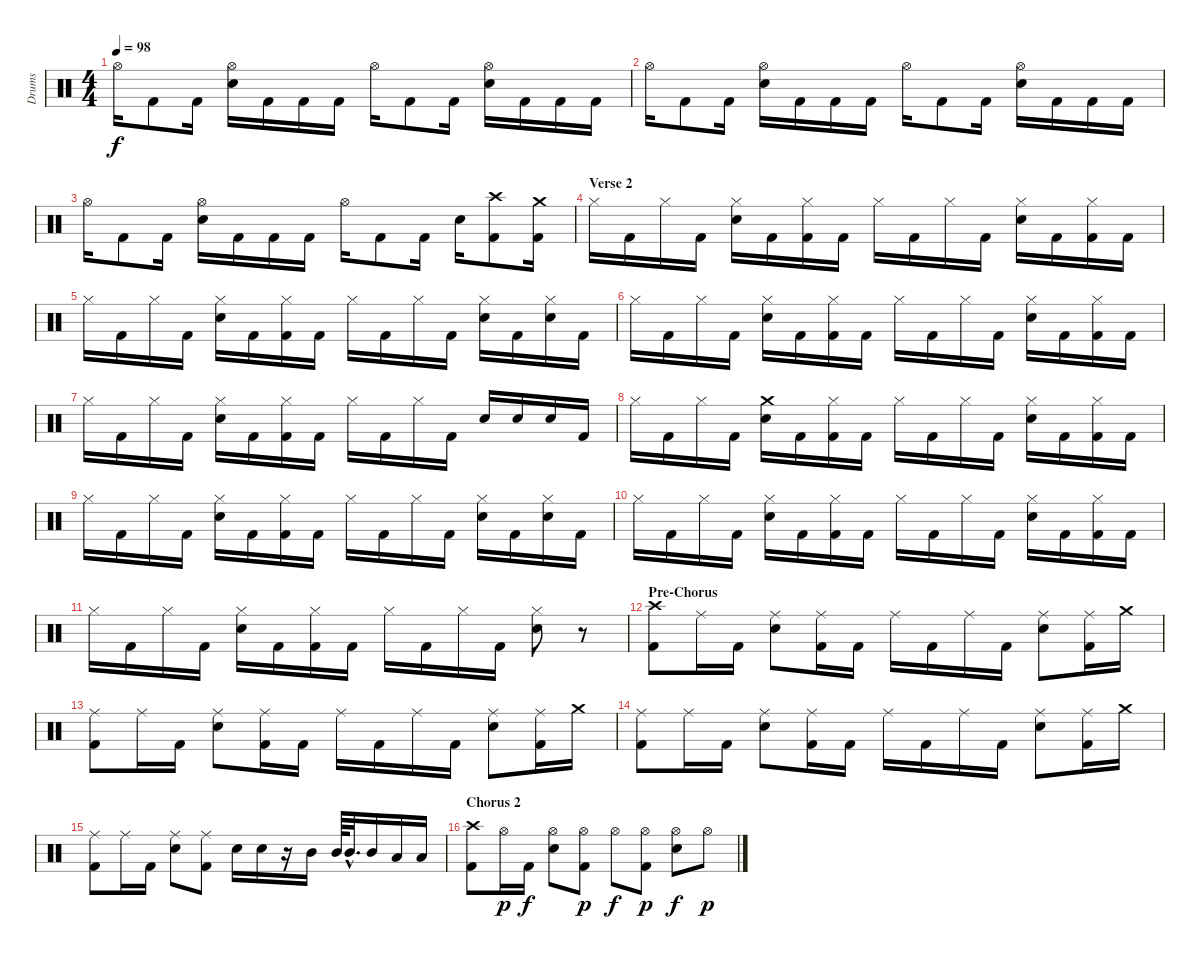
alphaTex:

\track ("Drums" "Drums") {instrument percussion}
\staff {score}
\articulation defaults
\ts (4 4)
\tempo 98
\clef neutral
\ks c "Hi-Hat (open)".16{dy f} "Kick (hit) 2".8 "Kick (hit) 2".16
("Hi-Hat (open)" "Electric Snare (hit)").16 "Kick (hit) 2".16 "Kick (hit) 2".16 "Kick (hit) 2".16 "Hi-Hat (open)".16 "Kick (hit) 2".8 "Kick (hit) 2".16 ("Hi-Hat (open)" "Electric Snare (hit)").16 "Kick (hit) 2".16 "Kick (hit) 2".16 "Kick (hit) 2".16 |
"Hi-Hat (open)".16 "Kick (hit) 2".8 "Kick (hit) 2".16 ("Hi-Hat (open)" "Electric Snare (hit)").16 "Kick (hit) 2".16 "Kick (hit) 2".16 "Kick (hit) 2".16 "Hi-Hat (open)".16 "Kick (hit) 2".8 "Kick (hit) 2".16 ("Hi-Hat (open)" "Electric Snare (hit)").16 "Kick (hit) 2".16 "Kick (hit) 2".16 "Kick (hit) 2".16 |
"Hi-Hat (open)".16 "Kick (hit) 2".8 "Kick (hit) 2".16 ("Hi-Hat (open)" "Electric Snare (hit)").16 "Kick (hit) 2".16 "Kick (hit) 2".16 "Kick (hit) 2".16 "Hi-Hat (open)".16 "Kick (hit) 2".8 "Kick (hit) 2".16 "Electric Snare (hit)".16 ("Crash high (hit)" "Kick (hit) 2").8 ("Crash medium (hit)" "Kick (hit) 2").16 |
\section ("" "Verse 2")
"Hi-Hat (closed)".16 "Kick (hit) 2".16 "Hi-Hat (closed)".16 "Kick (hit) 2".16 ("Hi-Hat (closed)" "Electric Snare (hit)").16 "Kick (hit) 2".16 ("Hi-Hat (closed)" "Kick (hit) 2").16 "Kick (hit) 2".16 "Hi-Hat (closed)".16 "Kick (hit) 2".16 "Hi-Hat (closed)".16 "Kick (hit) 2".16 ("Hi-Hat (closed)" "Electric Snare (hit)").16 "Kick (hit) 2".16 ("Hi-Hat (closed)" "Kick (hit) 2").16 "Kick (hit) 2".16 |
"Hi-Hat (closed)".16 "Kick (hit) 2".16 "Hi-Hat (closed)".16 "Kick (hit) 2".16 ("Hi-Hat (closed)" "Electric Snare (hit)").16 "Kick (hit) 2".16 ("Hi-Hat (closed)" "Kick (hit) 2").16 "Kick (hit) 2".16 "Hi-Hat (closed)".16 "Kick (hit) 2".16 "Hi-Hat (closed)".16 "Kick (hit) 2".16 ("Hi-Hat (closed)" "Electric Snare (hit)").16 "Kick (hit) 2".16 ("Hi-Hat (closed)" "Electric Snare (hit)").16 "Kick (hit) 2".16 |
"Hi-Hat (closed)".16 "Kick (hit) 2".16 "Hi-Hat (closed)".16 "Kick (hit) 2".16 ("Hi-Hat (closed)" "Electric Snare (hit)").16 "Kick (hit) 2".16 ("Hi-Hat (closed)" "Kick (hit) 2").16 "Kick (hit) 2".16 "Hi-Hat (closed)".16 "Kick (hit) 2".16 "Hi-Hat (closed)".16 "Kick (hit) 2".16 ("Hi-Hat (closed)" "Electric Snare (hit)").16 "Kick (hit) 2".16 ("Hi-Hat (closed)" "Kick (hit) 2").16 "Kick (hit) 2".16 |
"Hi-Hat (closed)".16 "Kick (hit) 2".16 "Hi-Hat (closed)".16 "Kick (hit) 2".16 ("Hi-Hat (closed)" "Electric Snare (hit)").16 "Kick (hit) 2".16 ("Hi-Hat (closed)" "Kick (hit) 2").16 "Kick (hit) 2".16 "Hi-Hat (closed)".16 "Kick (hit) 2".16 "Hi-Hat (closed)".16 "Kick (hit) 2".16 "Electric Snare (hit)".16 "Electric Snare (hit)".16 "Electric Snare (hit)".16 "Kick (hit) 2".16 |
"Hi-Hat (closed)".16 "Kick (hit) 2".16 "Hi-Hat (closed)".16 "Kick (hit) 2".16 ("Crash medium (hit)" "Electric Snare (hit)").16 "Kick (hit) 2".16 ("Hi-Hat (closed)" "Kick (hit) 2").16 "Kick (hit) 2".16 "Hi-Hat (closed)".16 "Kick (hit) 2".16 "Hi-Hat (closed)".16 "Kick (hit) 2".16 ("Hi-Hat (closed)" "Electric Snare (hit)").16 "Kick (hit) 2".16 ("Hi-Hat (closed)" "Kick (hit) 2").16 "Kick (hit) 2".16 |
"Hi-Hat (closed)".16 "Kick (hit) 2".16 "Hi-Hat (closed)".16 "Kick (hit) 2".16 ("Hi-Hat (closed)" "Electric Snare (hit)").16 "Kick (hit) 2".16 ("Hi-Hat (closed)" "Kick (hit) 2").16 "Kick (hit) 2".16 "Hi-Hat (closed)".16 "Kick (hit) 2".16 "Hi-Hat (closed)".16 "Kick (hit) 2".16 ("Hi-Hat (closed)" "Electric Snare (hit)").16 "Kick (hit) 2".16 ("Hi-Hat (closed)" "Electric Snare (hit)").16 "Kick (hit) 2".16 |
"Hi-Hat (closed)".16 "Kick (hit) 2".16 "Hi-Hat (closed)".16 "Kick (hit) 2".16 ("Hi-Hat (closed)" "Electric Snare (hit)").16 "Kick (hit) 2".16 ("Hi-Hat (closed)" "Kick (hit) 2").16 "Kick (hit) 2".16 "Hi-Hat (closed)".16 "Kick (hit) 2".16 "Hi-Hat (closed)".16 "Kick (hit) 2".16 ("Hi-Hat (closed)" "Electric Snare (hit)").16 "Kick (hit) 2".16 ("Hi-Hat (closed)" "Kick (hit) 2").16 "Kick (hit) 2".16 |
"Hi-Hat (closed)".16 "Kick (hit) 2".16 "Hi-Hat (closed)".16 "Kick (hit) 2".16 ("Hi-Hat (closed)" "Electric Snare (hit)").16 "Kick (hit) 2".16 ("Hi-Hat (closed)" "Kick (hit) 2").16 "Kick (hit) 2".16 "Hi-Hat (closed)".16 "Kick (hit) 2".16 "Hi-Hat (closed)".16 "Kick (hit) 2".16 ("Hi-Hat (closed)" "Electric Snare (hit)").8 r.8 |
\section ("" "Pre-Chorus")
("Crash high (hit)" "Kick (hit) 2").8 "Ride (middle)".16 "Kick (hit) 2".16 ("Ride (middle)" "Electric Snare (hit)").8 ("Ride (middle)" "Kick (hit) 2").16 "Kick (hit) 2".16 "Ride (middle)".16 "Kick (hit) 2".16 "Ride (middle)".16 "Kick (hit) 2".16 ("Ride (middle)" "Electric Snare (hit)").8 ("Ride (middle)" "Kick (hit) 2").16 "Crash medium (hit)".16 |
("Ride (middle)" "Kick (hit) 2").8 "Ride (middle)".16 "Kick (hit) 2".16 ("Ride (middle)" "Electric Snare (hit)").8 ("Ride (middle)" "Kick (hit) 2").16 "Kick (hit) 2".16 "Ride (middle)".16 "Kick (hit) 2".16 "Ride (middle)".16 "Kick (hit) 2".16 ("Ride (middle)" "Electric Snare (hit)").8 ("Ride (middle)" "Kick (hit) 2").16 "Crash medium (hit)".16 |
("Ride (middle)" "Kick (hit) 2").8 "Ride (middle)".16 "Kick (hit) 2".16 ("Ride (middle)" "Electric Snare (hit)").8 ("Ride (middle)" "Kick (hit) 2").16 "Kick (hit) 2".16 "Ride (middle)".16 "Kick (hit) 2".16 "Ride (middle)".16 "Kick (hit) 2".16 ("Ride (middle)" "Electric Snare (hit)").8 ("Ride (middle)" "Kick (hit) 2").16 "Crash medium (hit)".16 |
("Ride (middle)" "Kick (hit) 2").8 "Ride (middle)".16 "Kick (hit) 2".16 ("Ride (middle)" "Electric Snare (hit)").8 ("Ride (middle)" "Kick (hit) 2").8 "Electric Snare (hit)".16 "Electric Snare (hit)".16 r.16 "Mid Tom (hit)".16 "Mid Tom (hit)".64 "Mid Tom (hit)"{hac}.32{d} "Mid Tom (hit)".16 "Low Tom (hit)".16 "Low Tom (hit)".16 |
\section ("" "Chorus 2")
("Crash high (hit)" "Kick (hit) 2").8 "Hi-Hat (open)".16{dy p} "Kick (hit) 2".16{dy f} ("Hi-Hat (open)" "Electric Snare (hit)").8 ("Hi-Hat (open)" "Kick (hit) 2").8{dy p} "Hi-Hat (open)".8{dy f} ("Hi-Hat (open)" "Kick (hit) 2").8{dy p} ("Hi-Hat (open)" "Electric Snare (hit)").8{dy f} "Hi-Hat (open)".8{dy p}
